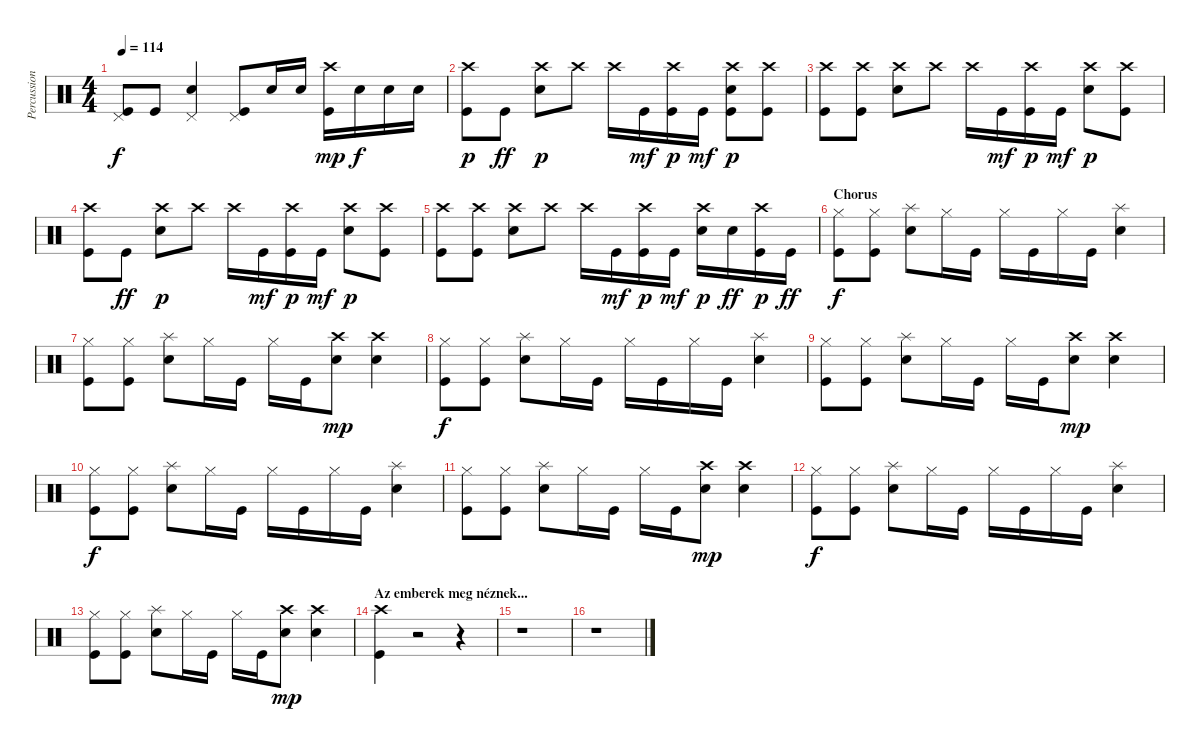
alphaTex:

\track ("Percussion" "Percussion") {instrument percussion}
\staff {score}
\articulation defaults
\ts (4 4)
\tempo 114
\clef neutral
\ks c
("Kick (hit)" "Pedal Hi-Hat (hit)").8{dy f} "Kick (hit)".8 ("Electric Snare (hit)" "Pedal Hi-Hat (hit)").4 ("Kick (hit)" "Pedal Hi-Hat (hit)").8 "Electric Snare (hit)".16 "Electric Snare (hit)".16 ("Kick (hit)" "Crash high (hit)").16{dy mp} "Electric Snare (hit)".16{dy f} "Electric Snare (hit)".16 "Electric Snare (hit)".16 |
("Kick (hit)" "Crash high (hit)").8{dy p} "Kick (hit)".8{dy ff} ("Electric Snare (hit)" "Crash high (hit)").8{dy p} "Crash high (hit)".8 "Crash high (hit)".16 "Kick (hit)".16{dy mf} ("Kick (hit)" "Crash high (hit)").16{dy p} "Kick (hit)".16{dy mf} ("Electric Snare (hit)" "Kick (hit)" "Crash high (hit)").8{dy p} ("Kick (hit)" "Crash high (hit)").8 |
("Kick (hit)" "Crash high (hit)").8 ("Kick (hit)" "Crash high (hit)").8 ("Electric Snare (hit)" "Crash high (hit)").8 "Crash high (hit)".8 "Crash high (hit)".16 "Kick (hit)".16{dy mf} ("Kick (hit)" "Crash high (hit)").16{dy p} "Kick (hit)".16{dy mf} ("Electric Snare (hit)" "Crash high (hit)").8{dy p} ("Kick (hit)" "Crash high (hit)").8 |
("Kick (hit)" "Crash high (hit)").8 "Kick (hit)".8{dy ff} ("Electric Snare (hit)" "Crash high (hit)").8{dy p} "Crash high (hit)".8 "Crash high (hit)".16 "Kick (hit)".16{dy mf} ("Kick (hit)" "Crash high (hit)").16{dy p} "Kick (hit)".16{dy mf} ("Electric Snare (hit)" "Crash high (hit)").8{dy p} ("Kick (hit)" "Crash high (hit)").8 |
("Kick (hit)" "Crash high (hit)").8 ("Kick (hit)" "Crash high (hit)").8 ("Electric Snare (hit)" "Crash high (hit)").8 "Crash high (hit)".8 "Crash high (hit)".16 "Kick (hit)".16{dy mf} ("Kick (hit)" "Crash high (hit)").16{dy p} "Kick (hit)".16{dy mf} ("Electric Snare (hit)" "Crash high (hit)").16{dy p} "Electric Snare (hit)".16{dy ff} ("Kick (hit)" "Crash high (hit)").16{dy p} "Kick (hit)".16{dy ff} |
\section ("" "Chorus")
("Kick (hit)" "Hi-Hat (closed)").8{dy f} ("Kick (hit)" "Hi-Hat (closed)").8 ("Electric Snare (hit)" "Splash (hit)").8 "Hi-Hat (closed)".16 "Kick (hit)".16 "Hi-Hat (closed)".16 "Kick (hit)".16 "Hi-Hat (closed)".16 "Kick (hit)".16 ("Electric Snare (hit)" "Splash (hit)").4 |
("Kick (hit)" "Hi-Hat (closed)").8 ("Kick (hit)" "Hi-Hat (closed)").8 ("Electric Snare (hit)" "Splash (hit)").8 "Hi-Hat (closed)".16 "Kick (hit)".16 "Hi-Hat (closed)".16 "Kick (hit)".16 ("Electric Snare (hit)" "Crash high (hit)").8{dy mp} ("Electric Snare (hit)" "Crash high (hit)").4 |
("Kick (hit)" "Hi-Hat (closed)").8{dy f} ("Kick (hit)" "Hi-Hat (closed)").8 ("Electric Snare (hit)" "Splash (hit)").8 "Hi-Hat (closed)".16 "Kick (hit)".16 "Hi-Hat (closed)".16 "Kick (hit)".16 "Hi-Hat (closed)".16 "Kick (hit)".16 ("Electric Snare (hit)" "Splash (hit)").4 |
("Kick (hit)" "Hi-Hat (closed)").8 ("Kick (hit)" "Hi-Hat (closed)").8 ("Electric Snare (hit)" "Splash (hit)").8 "Hi-Hat (closed)".16 "Kick (hit)".16 "Hi-Hat (closed)".16 "Kick (hit)".16 ("Electric Snare (hit)" "Crash high (hit)").8{dy mp} ("Electric Snare (hit)" "Crash high (hit)").4 |
("Kick (hit)" "Hi-Hat (closed)").8{dy f} ("Kick (hit)" "Hi-Hat (closed)").8 ("Electric Snare (hit)" "Splash (hit)").8 "Hi-Hat (closed)".16 "Kick (hit)".16 "Hi-Hat (closed)".16 "Kick (hit)".16 "Hi-Hat (closed)".16 "Kick (hit)".16 ("Electric Snare (hit)" "Splash (hit)").4 |
("Kick (hit)" "Hi-Hat (closed)").8 ("Kick (hit)" "Hi-Hat (closed)").8 ("Electric Snare (hit)" "Splash (hit)").8 "Hi-Hat (closed)".16 "Kick (hit)".16 "Hi-Hat (closed)".16 "Kick (hit)".16 ("Electric Snare (hit)" "Crash high (hit)").8{dy mp} ("Electric Snare (hit)" "Crash high (hit)").4 |
("Kick (hit)" "Hi-Hat (closed)").8{dy f} ("Kick (hit)" "Hi-Hat (closed)").8 ("Electric Snare (hit)" "Splash (hit)").8 "Hi-Hat (closed)".16 "Kick (hit)".16 "Hi-Hat (closed)".16 "Kick (hit)".16 "Hi-Hat (closed)".16 "Kick (hit)".16 ("Electric Snare (hit)" "Splash (hit)").4 |
("Kick (hit)" "Hi-Hat (closed)").8 ("Kick (hit)" "Hi-Hat (closed)").8 ("Electric Snare (hit)" "Splash (hit)").8 "Hi-Hat (closed)".16 "Kick (hit)".16 "Hi-Hat (closed)".16 "Kick (hit)".16 ("Electric Snare (hit)" "Crash high (hit)").8{dy mp} ("Electric Snare (hit)" "Crash high (hit)").4 |
\section ("" "Az emberek meg néznek...")
("Kick (hit)" "Crash high (hit)").4 r.2 r.4 |
r.1 |
r.1
